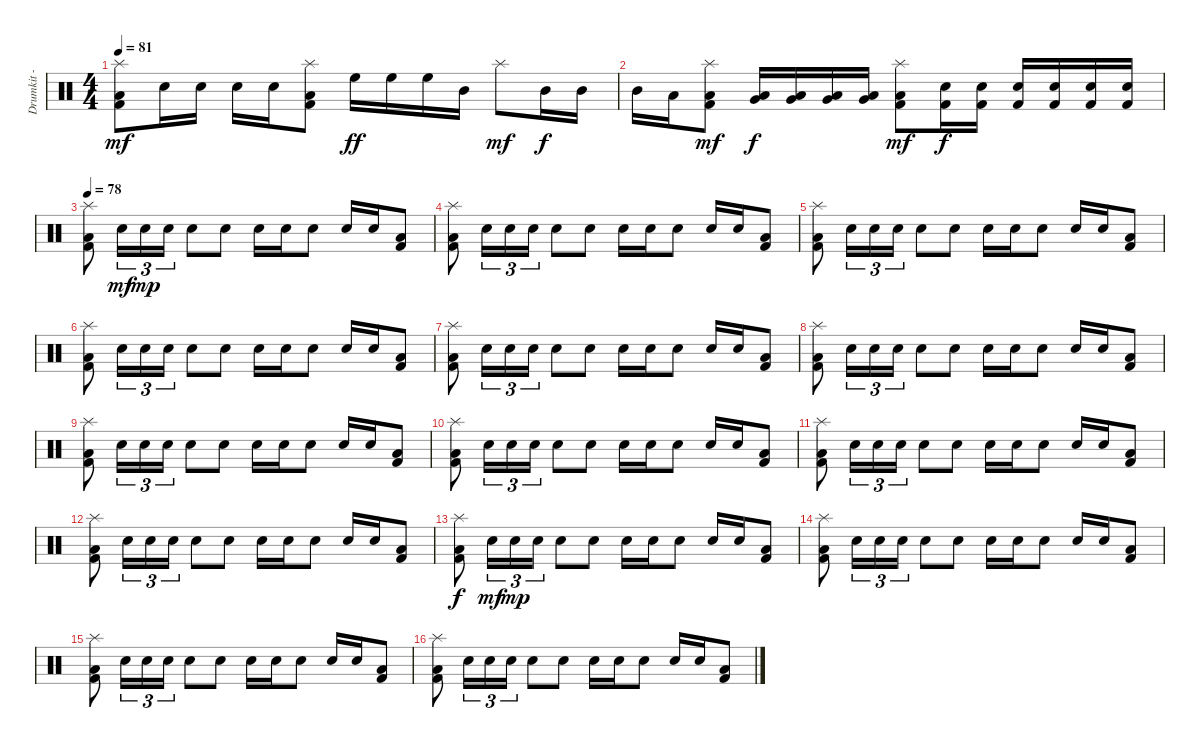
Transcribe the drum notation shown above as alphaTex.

\track ("Drumkit - Dom" "Drumkit - ") {instrument percussion}
\staff {score}
\articulation defaults
\ts (4 4)
\tempo 81
\clef neutral
\ks c
("Kick (hit) 2" "Low Floor Tom (hit)" "Splash (hit)").8{dy mf} "Snare (hit) 2".16 "Snare (hit) 2".16 "Snare (hit) 2".16 "Snare (hit) 2".16 ("Kick (hit) 2" "Low Floor Tom (hit)" "Splash (hit)").8 "High Floor Tom (hit)".16{dy ff} "High Floor Tom (hit)".16 "High Floor Tom (hit)".16 "Mid Tom (hit)".16 "Splash (hit)".8{dy mf} "Mid Tom (hit)".16{dy f} "Mid Tom (hit)".16 |
"Mid Tom (hit)".16 "Low Tom (hit)".16 ("Splash (hit)" "Kick (hit) 2" "Low Floor Tom (hit)").8{dy mf} ("Very Low Tom (hit)" "Low Floor Tom (hit)").16{dy f} ("Very Low Tom (hit)" "Low Floor Tom (hit)").16 ("Very Low Tom (hit)" "Low Floor Tom (hit)").16 ("Very Low Tom (hit)" "Low Floor Tom (hit)").16 ("Splash (hit)" "Low Floor Tom (hit)" "Kick (hit) 2").8{dy mf} ("Snare (hit) 2" "Kick (hit) 2").16{dy f} ("Snare (hit) 2" "Kick (hit) 2").16 ("Snare (hit) 2" "Kick (hit) 2").16 ("Snare (hit) 2" "Kick (hit) 2").16 ("Snare (hit) 2" "Kick (hit) 2").16 ("Snare (hit) 2" "Kick (hit) 2").16 |
\tempo 78
("Splash (hit)" "Kick (hit) 2" "Low Floor Tom (hit)").8 "Snare (hit) 2".16{tu (3 2) dy mf} "Snare (hit) 2".16{tu (3 2) dy mp} "Snare (hit) 2".16{tu (3 2)} "Snare (hit) 2".8 "Snare (hit) 2".8 "Snare (hit) 2".16 "Snare (hit) 2".16 "Snare (hit) 2".8 "Snare (hit) 2".16 "Snare (hit) 2".16 ("Kick (hit) 2" "Low Tom (hit)").8 |
("Splash (hit)" "Kick (hit) 2" "Low Floor Tom (hit)").8 "Snare (hit) 2".16{tu (3 2)} "Snare (hit) 2".16{tu (3 2)} "Snare (hit) 2".16{tu (3 2)} "Snare (hit) 2".8 "Snare (hit) 2".8 "Snare (hit) 2".16 "Snare (hit) 2".16 "Snare (hit) 2".8 "Snare (hit) 2".16 "Snare (hit) 2".16 ("Kick (hit) 2" "Low Tom (hit)").8 |
("Splash (hit)" "Kick (hit) 2" "Low Floor Tom (hit)").8 "Snare (hit) 2".16{tu (3 2)} "Snare (hit) 2".16{tu (3 2)} "Snare (hit) 2".16{tu (3 2)} "Snare (hit) 2".8 "Snare (hit) 2".8 "Snare (hit) 2".16 "Snare (hit) 2".16 "Snare (hit) 2".8 "Snare (hit) 2".16 "Snare (hit) 2".16 ("Kick (hit) 2" "Low Tom (hit)").8 |
("Splash (hit)" "Kick (hit) 2" "Low Floor Tom (hit)").8 "Snare (hit) 2".16{tu (3 2)} "Snare (hit) 2".16{tu (3 2)} "Snare (hit) 2".16{tu (3 2)} "Snare (hit) 2".8 "Snare (hit) 2".8 "Snare (hit) 2".16 "Snare (hit) 2".16 "Snare (hit) 2".8 "Snare (hit) 2".16 "Snare (hit) 2".16 ("Kick (hit) 2" "Low Tom (hit)").8 |
("Splash (hit)" "Kick (hit) 2" "Low Floor Tom (hit)").8 "Snare (hit) 2".16{tu (3 2)} "Snare (hit) 2".16{tu (3 2)} "Snare (hit) 2".16{tu (3 2)} "Snare (hit) 2".8 "Snare (hit) 2".8 "Snare (hit) 2".16 "Snare (hit) 2".16 "Snare (hit) 2".8 "Snare (hit) 2".16 "Snare (hit) 2".16 ("Kick (hit) 2" "Low Tom (hit)").8 |
("Splash (hit)" "Kick (hit) 2" "Low Floor Tom (hit)").8 "Snare (hit) 2".16{tu (3 2)} "Snare (hit) 2".16{tu (3 2)} "Snare (hit) 2".16{tu (3 2)} "Snare (hit) 2".8 "Snare (hit) 2".8 "Snare (hit) 2".16 "Snare (hit) 2".16 "Snare (hit) 2".8 "Snare (hit) 2".16 "Snare (hit) 2".16 ("Kick (hit) 2" "Low Tom (hit)").8 |
("Splash (hit)" "Kick (hit) 2" "Low Floor Tom (hit)").8 "Snare (hit) 2".16{tu (3 2)} "Snare (hit) 2".16{tu (3 2)} "Snare (hit) 2".16{tu (3 2)} "Snare (hit) 2".8 "Snare (hit) 2".8 "Snare (hit) 2".16 "Snare (hit) 2".16 "Snare (hit) 2".8 "Snare (hit) 2".16 "Snare (hit) 2".16 ("Kick (hit) 2" "Low Tom (hit)").8 |
("Splash (hit)" "Kick (hit) 2" "Low Floor Tom (hit)").8 "Snare (hit) 2".16{tu (3 2)} "Snare (hit) 2".16{tu (3 2)} "Snare (hit) 2".16{tu (3 2)} "Snare (hit) 2".8 "Snare (hit) 2".8 "Snare (hit) 2".16 "Snare (hit) 2".16 "Snare (hit) 2".8 "Snare (hit) 2".16 "Snare (hit) 2".16 ("Kick (hit) 2" "Low Tom (hit)").8 |
("Splash (hit)" "Kick (hit) 2" "Low Floor Tom (hit)").8 "Snare (hit) 2".16{tu (3 2)} "Snare (hit) 2".16{tu (3 2)} "Snare (hit) 2".16{tu (3 2)} "Snare (hit) 2".8 "Snare (hit) 2".8 "Snare (hit) 2".16 "Snare (hit) 2".16 "Snare (hit) 2".8 "Snare (hit) 2".16 "Snare (hit) 2".16 ("Kick (hit) 2" "Low Tom (hit)").8 |
("Splash (hit)" "Kick (hit) 2" "Low Floor Tom (hit)").8 "Snare (hit) 2".16{tu (3 2)} "Snare (hit) 2".16{tu (3 2)} "Snare (hit) 2".16{tu (3 2)} "Snare (hit) 2".8 "Snare (hit) 2".8 "Snare (hit) 2".16 "Snare (hit) 2".16 "Snare (hit) 2".8 "Snare (hit) 2".16 "Snare (hit) 2".16 ("Kick (hit) 2" "Low Tom (hit)").8 |
("Splash (hit)" "Kick (hit) 2" "Low Floor Tom (hit)").8{dy f} "Snare (hit) 2".16{tu (3 2) dy mf} "Snare (hit) 2".16{tu (3 2) dy mp} "Snare (hit) 2".16{tu (3 2)} "Snare (hit) 2".8 "Snare (hit) 2".8 "Snare (hit) 2".16 "Snare (hit) 2".16 "Snare (hit) 2".8 "Snare (hit) 2".16 "Snare (hit) 2".16 ("Kick (hit) 2" "Low Tom (hit)").8 |
("Splash (hit)" "Kick (hit) 2" "Low Floor Tom (hit)").8 "Snare (hit) 2".16{tu (3 2)} "Snare (hit) 2".16{tu (3 2)} "Snare (hit) 2".16{tu (3 2)} "Snare (hit) 2".8 "Snare (hit) 2".8 "Snare (hit) 2".16 "Snare (hit) 2".16 "Snare (hit) 2".8 "Snare (hit) 2".16 "Snare (hit) 2".16 ("Kick (hit) 2" "Low Tom (hit)").8 |
("Splash (hit)" "Kick (hit) 2" "Low Floor Tom (hit)").8 "Snare (hit) 2".16{tu (3 2)} "Snare (hit) 2".16{tu (3 2)} "Snare (hit) 2".16{tu (3 2)} "Snare (hit) 2".8 "Snare (hit) 2".8 "Snare (hit) 2".16 "Snare (hit) 2".16 "Snare (hit) 2".8 "Snare (hit) 2".16 "Snare (hit) 2".16 ("Kick (hit) 2" "Low Tom (hit)").8 |
("Splash (hit)" "Kick (hit) 2" "Low Floor Tom (hit)").8 "Snare (hit) 2".16{tu (3 2)} "Snare (hit) 2".16{tu (3 2)} "Snare (hit) 2".16{tu (3 2)} "Snare (hit) 2".8 "Snare (hit) 2".8 "Snare (hit) 2".16 "Snare (hit) 2".16 "Snare (hit) 2".8 "Snare (hit) 2".16 "Snare (hit) 2".16 ("Kick (hit) 2" "Low Tom (hit)").8
